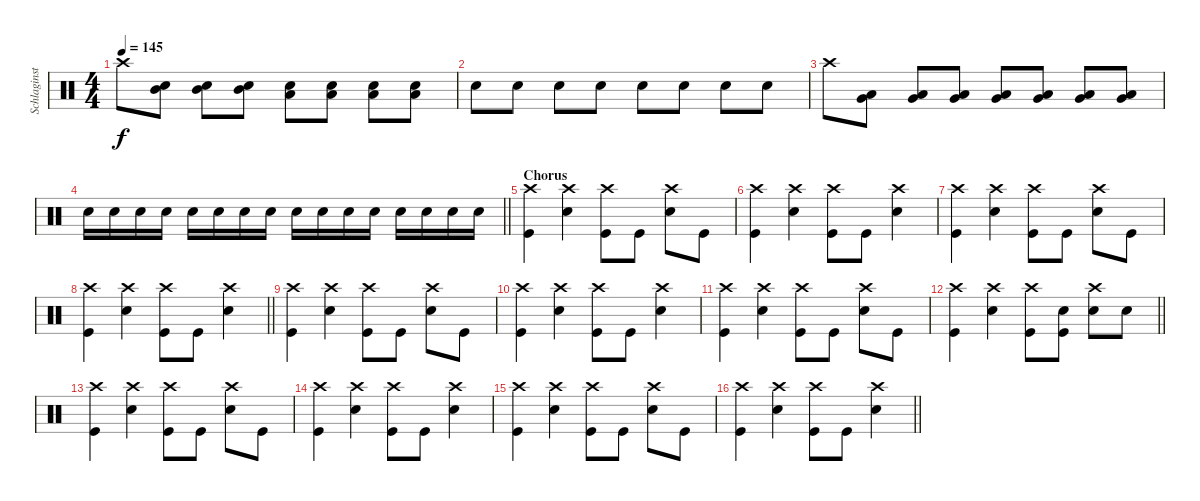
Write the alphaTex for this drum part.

\track ("Schlaginstrumente - Auswahl" "Schlaginst") {instrument percussion}
\staff {score}
\articulation defaults
\ts (4 4)
\tempo 145
\clef neutral
\ks c "Crash high (hit)".8{dy f}
("Mid Tom (hit)" "Snare (hit) 2").8 ("Mid Tom (hit)" "Snare (hit) 2").8 ("Mid Tom (hit)" "Snare (hit) 2").8 ("Snare (hit) 2" "Low Tom (hit)").8 ("Snare (hit) 2" "Low Tom (hit)").8 ("Snare (hit) 2" "Low Tom (hit)").8 ("Snare (hit) 2" "Low Tom (hit)").8 |
"Snare (hit) 2".8 "Snare (hit) 2".8 "Snare (hit) 2".8 "Snare (hit) 2".8 "Snare (hit) 2".8 "Snare (hit) 2".8 "Snare (hit) 2".8 "Snare (hit) 2".8 |
"Crash high (hit)".8 ("Very Low Tom (hit)" "Low Floor Tom (hit)").8 ("Very Low Tom (hit)" "Low Floor Tom (hit)").8 ("Very Low Tom (hit)" "Low Floor Tom (hit)").8 ("Low Floor Tom (hit)" "Very Low Tom (hit)").8 ("Very Low Tom (hit)" "Low Floor Tom (hit)").8 ("Very Low Tom (hit)" "Low Floor Tom (hit)").8 ("Low Floor Tom (hit)" "Very Low Tom (hit)").8 |
\barLineRight lightlight "Snare (hit) 2".16 "Snare (hit) 2".16 "Snare (hit) 2".16 "Snare (hit) 2".16 "Snare (hit) 2".16 "Snare (hit) 2".16 "Snare (hit) 2".16 "Snare (hit) 2".16 "Snare (hit) 2".16 "Snare (hit) 2".16 "Snare (hit) 2".16 "Snare (hit) 2".16 "Snare (hit) 2".16 "Snare (hit) 2".16 "Snare (hit) 2".16 "Snare (hit) 2".16
|
\section ("" "Chorus")
("Kick (hit)" "Crash high (hit)").4 ("Snare (hit) 2" "Crash high (hit)").4 ("Kick (hit)" "Crash high (hit)").8 "Kick (hit)".8 ("Snare (hit) 2" "Crash high (hit)").8 "Kick (hit)".8 |
("Kick (hit)" "Crash high (hit)").4 ("Snare (hit) 2" "Crash high (hit)").4 ("Kick (hit)" "Crash high (hit)").8 "Kick (hit)".8 ("Snare (hit) 2" "Crash high (hit)").4 |
("Kick (hit)" "Crash high (hit)").4 ("Snare (hit) 2" "Crash high (hit)").4 ("Kick (hit)" "Crash high (hit)").8 "Kick (hit)".8 ("Snare (hit) 2" "Crash high (hit)").8 "Kick (hit)".8 |
\barLineRight lightlight
("Kick (hit)" "Crash high (hit)").4 ("Snare (hit) 2" "Crash high (hit)").4 ("Kick (hit)" "Crash high (hit)").8 "Kick (hit)".8 ("Snare (hit) 2" "Crash high (hit)").4 |
("Kick (hit)" "Crash high (hit)").4 ("Snare (hit) 2" "Crash high (hit)").4 ("Kick (hit)" "Crash high (hit)").8 "Kick (hit)".8 ("Snare (hit) 2" "Crash high (hit)").8 "Kick (hit)".8 |
("Kick (hit)" "Crash high (hit)").4 ("Snare (hit) 2" "Crash high (hit)").4 ("Kick (hit)" "Crash high (hit)").8 "Kick (hit)".8 ("Snare (hit) 2" "Crash high (hit)").4 |
("Kick (hit)" "Crash high (hit)").4 ("Snare (hit) 2" "Crash high (hit)").4 ("Kick (hit)" "Crash high (hit)").8 "Kick (hit)".8 ("Snare (hit) 2" "Crash high (hit)").8 "Kick (hit)".8 |
\barLineRight lightlight
("Kick (hit)" "Crash high (hit)").4 ("Snare (hit) 2" "Crash high (hit)").4 ("Kick (hit)" "Crash high (hit)").8 ("Kick (hit)" "Snare (hit) 2").8 ("Snare (hit) 2" "Crash high (hit)").8 "Snare (hit) 2".8 |
("Kick (hit)" "Crash high (hit)").4 ("Snare (hit) 2" "Crash high (hit)").4 ("Kick (hit)" "Crash high (hit)").8 "Kick (hit)".8 ("Snare (hit) 2" "Crash high (hit)").8 "Kick (hit)".8 |
("Kick (hit)" "Crash high (hit)").4 ("Snare (hit) 2" "Crash high (hit)").4 ("Kick (hit)" "Crash high (hit)").8 "Kick (hit)".8 ("Snare (hit) 2" "Crash high (hit)").4 |
("Kick (hit)" "Crash high (hit)").4 ("Snare (hit) 2" "Crash high (hit)").4 ("Kick (hit)" "Crash high (hit)").8 "Kick (hit)".8 ("Snare (hit) 2" "Crash high (hit)").8 "Kick (hit)".8 |
\barLineRight lightlight
("Kick (hit)" "Crash high (hit)").4 ("Snare (hit) 2" "Crash high (hit)").4 ("Kick (hit)" "Crash high (hit)").8 "Kick (hit)".8 ("Snare (hit) 2" "Crash high (hit)").4
